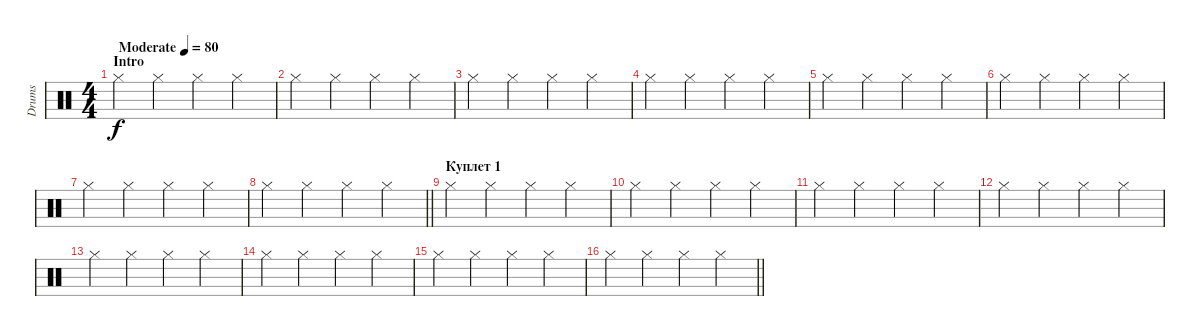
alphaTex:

\track ("Drums" "Drums") {instrument percussion}
\staff {score}
\articulation defaults
\ts (4 4)
\section ("" "Intro")
\tempo (80 "Moderate")
\clef neutral
\ks c "Hi-Hat (closed)".4{dy f} "Hi-Hat (closed)".4 "Hi-Hat (closed)".4 "Hi-Hat (closed)".4
|
"Hi-Hat (closed)".4 "Hi-Hat (closed)".4 "Hi-Hat (closed)".4 "Hi-Hat (closed)".4 |
"Hi-Hat (closed)".4 "Hi-Hat (closed)".4 "Hi-Hat (closed)".4 "Hi-Hat (closed)".4 |
"Hi-Hat (closed)".4 "Hi-Hat (closed)".4 "Hi-Hat (closed)".4 "Hi-Hat (closed)".4 |
"Hi-Hat (closed)".4 "Hi-Hat (closed)".4 "Hi-Hat (closed)".4 "Hi-Hat (closed)".4 |
"Hi-Hat (closed)".4 "Hi-Hat (closed)".4 "Hi-Hat (closed)".4 "Hi-Hat (closed)".4 |
"Hi-Hat (closed)".4 "Hi-Hat (closed)".4 "Hi-Hat (closed)".4 "Hi-Hat (closed)".4 |
\barLineRight lightlight "Hi-Hat (closed)".4 "Hi-Hat (closed)".4 "Hi-Hat (closed)".4 "Hi-Hat (closed)".4
|
\section ("" "Куплет 1")
"Hi-Hat (closed)".4 "Hi-Hat (closed)".4 "Hi-Hat (closed)".4 "Hi-Hat (closed)".4 |
"Hi-Hat (closed)".4 "Hi-Hat (closed)".4 "Hi-Hat (closed)".4 "Hi-Hat (closed)".4 |
"Hi-Hat (closed)".4 "Hi-Hat (closed)".4 "Hi-Hat (closed)".4 "Hi-Hat (closed)".4 |
"Hi-Hat (closed)".4 "Hi-Hat (closed)".4 "Hi-Hat (closed)".4 "Hi-Hat (closed)".4 |
"Hi-Hat (closed)".4 "Hi-Hat (closed)".4 "Hi-Hat (closed)".4 "Hi-Hat (closed)".4 |
"Hi-Hat (closed)".4 "Hi-Hat (closed)".4 "Hi-Hat (closed)".4 "Hi-Hat (closed)".4 |
"Hi-Hat (closed)".4 "Hi-Hat (closed)".4 "Hi-Hat (closed)".4 "Hi-Hat (closed)".4 |
\barLineRight lightlight "Hi-Hat (closed)".4 "Hi-Hat (closed)".4 "Hi-Hat (closed)".4 "Hi-Hat (closed)".4
